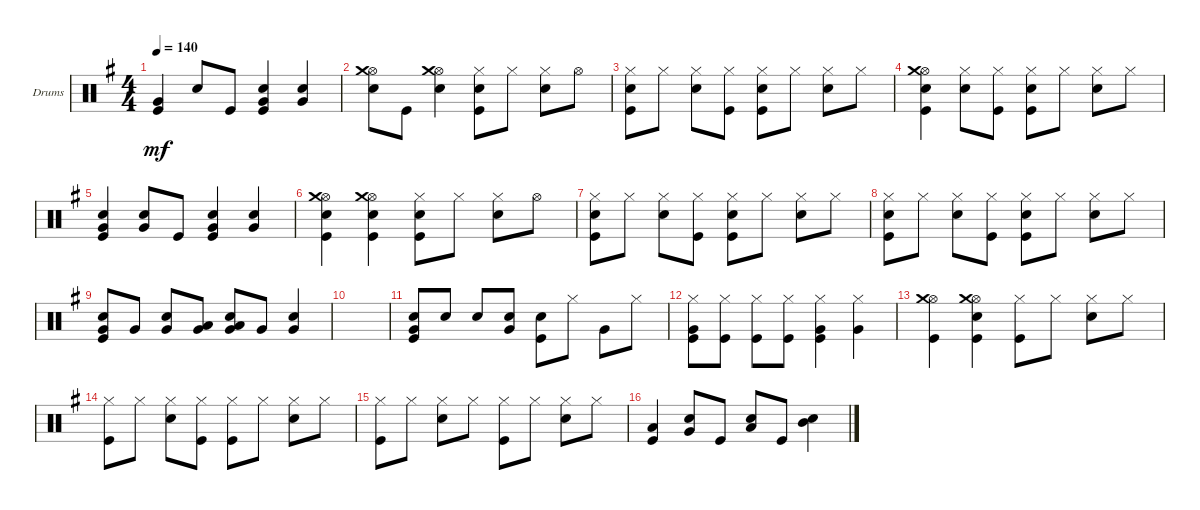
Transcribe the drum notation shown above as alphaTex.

\defaultSystemsLayout 4
\bracketExtendMode groupsimilarinstruments
\firstSystemTrackNameOrientation horizontal
\otherSystemsTrackNameOrientation horizontal
\track ("Drumkit" "Drums") {instrument percussion}
\staff {score}
\articulation defaults
\ts (4 4)
\tempo 140
\clef neutral
\ks g
("Kick (hit)" "Very Low Tom (hit)").4{dy mf} "Snare (hit) 2".8 "Kick (hit)".8 ("Kick (hit)" "Very Low Tom (hit)" "Snare (hit) 2").4 ("Snare (hit) 2" "Very Low Tom (hit)").4 |
("Hi-Hat (open)" "Crash medium (hit)" "Snare (hit) 2").8 "Kick (hit)".8 ("Snare (hit) 2" "Hi-Hat (open)" "Crash medium (hit)").4 ("Hi-Hat (closed)" "Snare (hit) 2" "Kick (hit)").8 "Hi-Hat (closed)".8 ("Hi-Hat (closed)" "Snare (hit) 2").8 "Hi-Hat (open)".8 |
("Hi-Hat (closed)" "Snare (hit) 2" "Kick (hit)").8 "Hi-Hat (closed)".8 ("Hi-Hat (closed)" "Snare (hit) 2").8 ("Kick (hit)" "Hi-Hat (closed)").8 ("Hi-Hat (closed)" "Snare (hit) 2" "Kick (hit)").8 "Hi-Hat (closed)".8 ("Hi-Hat (closed)" "Snare (hit) 2").8 "Hi-Hat (closed)".8 |
("Hi-Hat (open)" "Crash medium (hit)" "Snare (hit) 2" "Kick (hit)").4 ("Snare (hit) 2" "Hi-Hat (closed)").8 ("Hi-Hat (closed)" "Kick (hit)").8 ("Kick (hit)" "Snare (hit) 2" "Hi-Hat (closed)").8 "Hi-Hat (closed)".8 ("Hi-Hat (closed)" "Snare (hit) 2").8 "Hi-Hat (closed)".8 |
("Snare (hit) 2" "Kick (hit)" "Very Low Tom (hit)").4 ("Snare (hit) 2" "Very Low Tom (hit)").8 "Kick (hit)".8 ("Snare (hit) 2" "Kick (hit)" "Very Low Tom (hit)").4 ("Very Low Tom (hit)" "Snare (hit) 2").4 |
("Hi-Hat (open)" "Crash medium (hit)" "Snare (hit) 2" "Kick (hit)").4 ("Kick (hit)" "Snare (hit) 2" "Hi-Hat (open)" "Crash medium (hit)").4 ("Hi-Hat (closed)" "Kick (hit)" "Snare (hit) 2").8 "Hi-Hat (closed)".8 ("Hi-Hat (closed)" "Snare (hit) 2").8 "Hi-Hat (open)".8 |
("Hi-Hat (closed)" "Snare (hit) 2" "Kick (hit)").8 "Hi-Hat (closed)".8 ("Hi-Hat (closed)" "Snare (hit) 2").8 ("Hi-Hat (closed)" "Kick (hit)").8 ("Kick (hit)" "Snare (hit) 2" "Hi-Hat (closed)").8 "Hi-Hat (closed)".8 ("Hi-Hat (closed)" "Snare (hit) 2").8 "Hi-Hat (closed)".8 |
("Hi-Hat (closed)" "Snare (hit) 2" "Kick (hit)").8 "Hi-Hat (closed)".8 ("Hi-Hat (closed)" "Snare (hit) 2").8 ("Kick (hit)" "Hi-Hat (closed)").8 ("Hi-Hat (closed)" "Snare (hit) 2" "Kick (hit)").8 "Hi-Hat (closed)".8 ("Hi-Hat (closed)" "Snare (hit) 2").8 "Hi-Hat (closed)".8 |
("Kick (hit)" "Very Low Tom (hit)" "Snare (hit) 2").8 "Very Low Tom (hit)".8 ("Very Low Tom (hit)" "Snare (hit) 2").8 ("Very Low Tom (hit)" "Low Tom (hit)").8 ("Low Tom (hit)" "Very Low Tom (hit)" "Snare (hit) 2").8 "Very Low Tom (hit)".8 ("Very Low Tom (hit)" "Snare (hit) 2").4 |
|
("Snare (hit) 2" "Very Low Tom (hit)" "Kick (hit)").8 "Snare (hit) 2".8 "Snare (hit) 2".8 ("Snare (hit) 2" "Very Low Tom (hit)").8 ("Snare (hit) 2" "Kick (hit)").8 "Hi-Hat (closed)".8 "Very Low Tom (hit)".8 "Hi-Hat (closed)".8 |
("Kick (hit)" "Very Low Tom (hit)" "Hi-Hat (closed)").8 ("Kick (hit)" "Hi-Hat (closed)").8 ("Kick (hit)" "Hi-Hat (closed)").8 ("Kick (hit)" "Hi-Hat (closed)").8 ("Hi-Hat (closed)" "Very Low Tom (hit)" "Kick (hit)").4 ("Very Low Tom (hit)" "Hi-Hat (closed)").4 |
("Hi-Hat (open)" "Crash medium (hit)" "Kick (hit)").4 ("Kick (hit)" "Snare (hit) 2" "Hi-Hat (open)" "Crash medium (hit)").4 ("Hi-Hat (closed)" "Kick (hit)").8 "Hi-Hat (closed)".8 ("Hi-Hat (closed)" "Snare (hit) 2").8 "Hi-Hat (closed)".8 |
("Hi-Hat (closed)" "Kick (hit)").8 "Hi-Hat (closed)".8 ("Hi-Hat (closed)" "Snare (hit) 2").8 ("Hi-Hat (closed)" "Kick (hit)").8 ("Hi-Hat (closed)" "Kick (hit)").8 "Hi-Hat (closed)".8 ("Hi-Hat (closed)" "Snare (hit) 2").8 "Hi-Hat (closed)".8 |
("Kick (hit)" "Hi-Hat (closed)").8 "Hi-Hat (closed)".8 ("Hi-Hat (closed)" "Snare (hit) 2").8 "Hi-Hat (closed)".8 ("Hi-Hat (closed)" "Kick (hit)").8 "Hi-Hat (closed)".8 ("Hi-Hat (closed)" "Snare (hit) 2").8 "Hi-Hat (closed)".8 |
("Kick (hit)" "Low Tom (hit)").4 ("Very Low Tom (hit)" "Snare (hit) 2").8 "Kick (hit)".8 ("Low Tom (hit)" "Snare (hit) 2").8 "Kick (hit)".8 ("Mid Tom (hit)" "Snare (hit) 2").4
